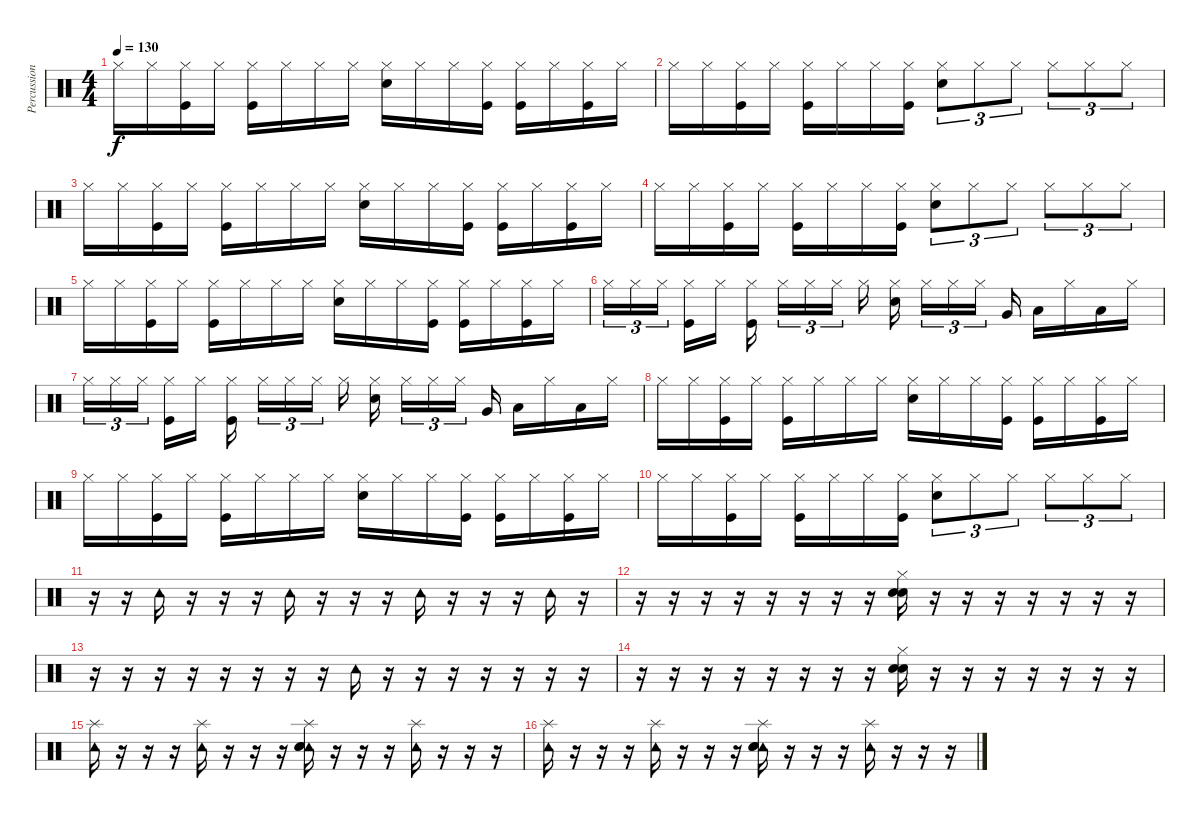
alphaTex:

\track ("Percussion" "Percussion") {instrument percussion}
\staff {score}
\articulation defaults
\ts (4 4)
\tempo 130
\clef neutral
\ks c "Hi-Hat (closed)".16{dy f} "Hi-Hat (closed)".16
("Hi-Hat (closed)" "Kick (hit)").16 "Hi-Hat (closed)".16 ("Hi-Hat (closed)" "Kick (hit)").16 "Hi-Hat (closed)".16 "Hi-Hat (closed)".16 "Hi-Hat (closed)".16 ("Hi-Hat (closed)" "Hand Clap (hit)").16 "Hi-Hat (closed)".16 "Hi-Hat (closed)".16 ("Hi-Hat (closed)" "Kick (hit)").16 ("Hi-Hat (closed)" "Kick (hit)").16 "Hi-Hat (closed)".16 ("Hi-Hat (closed)" "Kick (hit)").16 "Hi-Hat (closed)".16 |
"Hi-Hat (closed)".16 "Hi-Hat (closed)".16 ("Hi-Hat (closed)" "Kick (hit)").16 "Hi-Hat (closed)".16 ("Hi-Hat (closed)" "Kick (hit)").16 "Hi-Hat (closed)".16 "Hi-Hat (closed)".16 ("Hi-Hat (closed)" "Kick (hit)").16 ("Hi-Hat (closed)" "Hand Clap (hit)").8{tu (3 2)} "Hi-Hat (closed)".8{tu (3 2)} "Hi-Hat (closed)".8{tu (3 2)} "Hi-Hat (closed)".8{tu (3 2)} "Hi-Hat (closed)".8{tu (3 2)} "Hi-Hat (closed)".8{tu (3 2)} |
"Hi-Hat (closed)".16 "Hi-Hat (closed)".16 ("Hi-Hat (closed)" "Kick (hit)").16 "Hi-Hat (closed)".16 ("Hi-Hat (closed)" "Kick (hit)").16 "Hi-Hat (closed)".16 "Hi-Hat (closed)".16 "Hi-Hat (closed)".16 ("Hi-Hat (closed)" "Hand Clap (hit)").16 "Hi-Hat (closed)".16 "Hi-Hat (closed)".16 ("Hi-Hat (closed)" "Kick (hit)").16 ("Hi-Hat (closed)" "Kick (hit)").16 "Hi-Hat (closed)".16 ("Hi-Hat (closed)" "Kick (hit)").16 "Hi-Hat (closed)".16 |
"Hi-Hat (closed)".16 "Hi-Hat (closed)".16 ("Hi-Hat (closed)" "Kick (hit)").16 "Hi-Hat (closed)".16 ("Hi-Hat (closed)" "Kick (hit)").16 "Hi-Hat (closed)".16 "Hi-Hat (closed)".16 ("Hi-Hat (closed)" "Kick (hit)").16 ("Hi-Hat (closed)" "Hand Clap (hit)").8{tu (3 2)} "Hi-Hat (closed)".8{tu (3 2)} "Hi-Hat (closed)".8{tu (3 2)} "Hi-Hat (closed)".8{tu (3 2)} "Hi-Hat (closed)".8{tu (3 2)} "Hi-Hat (closed)".8{tu (3 2)} |
"Hi-Hat (closed)".16 "Hi-Hat (closed)".16 ("Hi-Hat (closed)" "Kick (hit)").16 "Hi-Hat (closed)".16 ("Hi-Hat (closed)" "Kick (hit)").16 "Hi-Hat (closed)".16 "Hi-Hat (closed)".16 "Hi-Hat (closed)".16 ("Hi-Hat (closed)" "Hand Clap (hit)").16 "Hi-Hat (closed)".16 "Hi-Hat (closed)".16 ("Hi-Hat (closed)" "Kick (hit)").16 ("Hi-Hat (closed)" "Kick (hit)").16 "Hi-Hat (closed)".16 ("Hi-Hat (closed)" "Kick (hit)").16 "Hi-Hat (closed)".16 |
"Hi-Hat (closed)".16{tu (3 2)} "Hi-Hat (closed)".16{tu (3 2)} "Hi-Hat (closed)".16{tu (3 2) beam splitsecondary} ("Hi-Hat (closed)" "Kick (hit)").16 "Hi-Hat (closed)".16 ("Hi-Hat (closed)" "Kick (hit)").16{beam splitsecondary} "Hi-Hat (closed)".16{tu (3 2)} "Hi-Hat (closed)".16{tu (3 2)} "Hi-Hat (closed)".16{tu (3 2) beam splitsecondary} "Hi-Hat (closed)".16 ("Hi-Hat (closed)" "Hand Clap (hit)").16{beam splitsecondary} "Hi-Hat (closed)".16{tu (3 2)} "Hi-Hat (closed)".16{tu (3 2)} "Hi-Hat (closed)".16{tu (3 2) beam splitsecondary} "Very Low Tom (hit)".16 "Low Floor Tom (hit)".16 "Hi-Hat (closed)".16 "Low Floor Tom (hit)".16 "Hi-Hat (closed)".16 |
"Hi-Hat (closed)".16{tu (3 2)} "Hi-Hat (closed)".16{tu (3 2)} "Hi-Hat (closed)".16{tu (3 2) beam splitsecondary} ("Hi-Hat (closed)" "Kick (hit)").16 "Hi-Hat (closed)".16 ("Hi-Hat (closed)" "Kick (hit)").16{beam splitsecondary} "Hi-Hat (closed)".16{tu (3 2)} "Hi-Hat (closed)".16{tu (3 2)} "Hi-Hat (closed)".16{tu (3 2) beam splitsecondary} "Hi-Hat (closed)".16 ("Hi-Hat (closed)" "Hand Clap (hit)").16{beam splitsecondary} "Hi-Hat (closed)".16{tu (3 2)} "Hi-Hat (closed)".16{tu (3 2)} "Hi-Hat (closed)".16{tu (3 2) beam splitsecondary} "Very Low Tom (hit)".16 "Low Floor Tom (hit)".16 "Hi-Hat (closed)".16 "Low Floor Tom (hit)".16 "Hi-Hat (closed)".16 |
"Hi-Hat (closed)".16 "Hi-Hat (closed)".16 ("Hi-Hat (closed)" "Kick (hit)").16 "Hi-Hat (closed)".16 ("Hi-Hat (closed)" "Kick (hit)").16 "Hi-Hat (closed)".16 "Hi-Hat (closed)".16 "Hi-Hat (closed)".16 ("Hi-Hat (closed)" "Hand Clap (hit)").16 "Hi-Hat (closed)".16 "Hi-Hat (closed)".16 ("Hi-Hat (closed)" "Kick (hit)").16 ("Hi-Hat (closed)" "Kick (hit)").16 "Hi-Hat (closed)".16 ("Hi-Hat (closed)" "Kick (hit)").16 "Hi-Hat (closed)".16 |
"Hi-Hat (closed)".16 "Hi-Hat (closed)".16 ("Hi-Hat (closed)" "Kick (hit)").16 "Hi-Hat (closed)".16 ("Hi-Hat (closed)" "Kick (hit)").16 "Hi-Hat (closed)".16 "Hi-Hat (closed)".16 "Hi-Hat (closed)".16 ("Hi-Hat (closed)" "Hand Clap (hit)").16 "Hi-Hat (closed)".16 "Hi-Hat (closed)".16 ("Hi-Hat (closed)" "Kick (hit)").16 ("Hi-Hat (closed)" "Kick (hit)").16 "Hi-Hat (closed)".16 ("Hi-Hat (closed)" "Kick (hit)").16 "Hi-Hat (closed)".16 |
"Hi-Hat (closed)".16 "Hi-Hat (closed)".16 ("Hi-Hat (closed)" "Kick (hit)").16 "Hi-Hat (closed)".16 ("Hi-Hat (closed)" "Kick (hit)").16 "Hi-Hat (closed)".16 "Hi-Hat (closed)".16 ("Hi-Hat (closed)" "Kick (hit)").16 ("Hi-Hat (closed)" "Hand Clap (hit)").8{tu (3 2)} "Hi-Hat (closed)".8{tu (3 2)} "Hi-Hat (closed)".8{tu (3 2)} "Hi-Hat (closed)".8{tu (3 2)} "Hi-Hat (closed)".8{tu (3 2)} "Hi-Hat (closed)".8{tu (3 2)} |
r.16 r.16 "Tambourine (hit)".16 r.16 r.16 r.16 "Tambourine (hit)".16 r.16 r.16 r.16 "Tambourine (hit)".16 r.16 r.16 r.16 "Tambourine (hit)".16 r.16 |
r.16 r.16 r.16 r.16 r.16 r.16 r.16 r.16 ("Hi-Hat (closed)" "Hand Clap (hit)" "Electric Snare (hit)").16 r.16 r.16 r.16 r.16 r.16 r.16 r.16 |
r.16 r.16 r.16 r.16 r.16 r.16 r.16 r.16 "Tambourine (hit)".16 r.16 r.16 r.16 r.16 r.16 r.16 r.16 |
r.16 r.16 r.16 r.16 r.16 r.16 r.16 r.16 ("Hi-Hat (closed)" "Hand Clap (hit)" "Electric Snare (hit)").16 r.16 r.16 r.16 r.16 r.16 r.16 r.16 |
("Splash (hit)" "Tambourine (hit)").16 r.16 r.16 r.16 ("Splash (hit)" "Tambourine (hit)").16 r.16 r.16 r.16 ("Splash (hit)" "Tambourine (hit)" "Hand Clap (hit)" "Electric Snare (hit)").16 r.16 r.16 r.16 ("Splash (hit)" "Tambourine (hit)").16 r.16 r.16 r.16 |
("Splash (hit)" "Tambourine (hit)").16 r.16 r.16 r.16 ("Splash (hit)" "Tambourine (hit)").16 r.16 r.16 r.16 ("Splash (hit)" "Tambourine (hit)" "Hand Clap (hit)" "Electric Snare (hit)").16 r.16 r.16 r.16 ("Splash (hit)" "Tambourine (hit)").16 r.16 r.16 r.16
